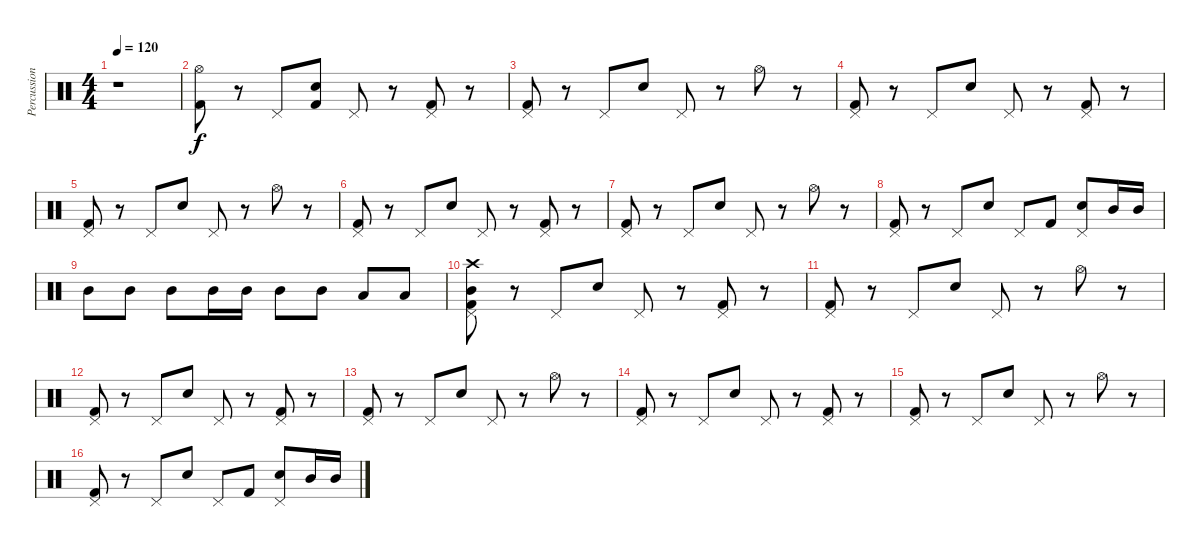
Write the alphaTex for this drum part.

\track ("Percussion" "Percussion") {instrument percussion}
\staff {score}
\articulation defaults
\ts (4 4)
\tempo 120
\clef neutral
\ks c
r.1{dy f} |
("Hi-Hat (open)" "Kick (hit) 2").8 r.8 "Pedal Hi-Hat (hit)".8 ("Electric Snare (hit)" "Kick (hit) 2").8 "Pedal Hi-Hat (hit)".8 r.8 ("Pedal Hi-Hat (hit)" "Kick (hit) 2").8 r.8 |
("Pedal Hi-Hat (hit)" "Kick (hit) 2").8 r.8 "Pedal Hi-Hat (hit)".8 "Electric Snare (hit)".8 "Pedal Hi-Hat (hit)".8 r.8 "Hi-Hat (open)".8 r.8 |
("Pedal Hi-Hat (hit)" "Kick (hit) 2").8 r.8 "Pedal Hi-Hat (hit)".8 "Electric Snare (hit)".8 "Pedal Hi-Hat (hit)".8 r.8 ("Pedal Hi-Hat (hit)" "Kick (hit) 2").8 r.8 |
("Pedal Hi-Hat (hit)" "Kick (hit) 2").8 r.8 "Pedal Hi-Hat (hit)".8 "Electric Snare (hit)".8 "Pedal Hi-Hat (hit)".8 r.8 "Hi-Hat (open)".8 r.8 |
("Pedal Hi-Hat (hit)" "Kick (hit) 2").8 r.8 "Pedal Hi-Hat (hit)".8 "Electric Snare (hit)".8 "Pedal Hi-Hat (hit)".8 r.8 ("Pedal Hi-Hat (hit)" "Kick (hit) 2").8 r.8 |
("Pedal Hi-Hat (hit)" "Kick (hit) 2").8 r.8 "Pedal Hi-Hat (hit)".8 "Electric Snare (hit)".8 "Pedal Hi-Hat (hit)".8 r.8 "Hi-Hat (open)".8 r.8 |
("Pedal Hi-Hat (hit)" "Kick (hit) 2").8 r.8 "Pedal Hi-Hat (hit)".8 "Electric Snare (hit)".8 "Pedal Hi-Hat (hit)".8 "Kick (hit) 2".8 ("Pedal Hi-Hat (hit)" "Electric Snare (hit)").8 "Mid Tom (hit)".16 "Mid Tom (hit)".16 |
"Mid Tom (hit)".8 "Mid Tom (hit)".8 "Mid Tom (hit)".8 "Mid Tom (hit)".16 "Mid Tom (hit)".16 "Mid Tom (hit)".8 "Mid Tom (hit)".8 "Low Tom (hit)".8 "Low Tom (hit)".8 |
("Crash high (hit)" "Pedal Hi-Hat (hit)" "Mid Tom (hit)" "Kick (hit) 2").8 r.8 "Pedal Hi-Hat (hit)".8 "Electric Snare (hit)".8 "Pedal Hi-Hat (hit)".8 r.8 ("Pedal Hi-Hat (hit)" "Kick (hit) 2").8 r.8 |
("Pedal Hi-Hat (hit)" "Kick (hit) 2").8 r.8 "Pedal Hi-Hat (hit)".8 "Electric Snare (hit)".8 "Pedal Hi-Hat (hit)".8 r.8 "Hi-Hat (open)".8 r.8 |
("Pedal Hi-Hat (hit)" "Kick (hit) 2").8 r.8 "Pedal Hi-Hat (hit)".8 "Electric Snare (hit)".8 "Pedal Hi-Hat (hit)".8 r.8 ("Pedal Hi-Hat (hit)" "Kick (hit) 2").8 r.8 |
("Pedal Hi-Hat (hit)" "Kick (hit) 2").8 r.8 "Pedal Hi-Hat (hit)".8 "Electric Snare (hit)".8 "Pedal Hi-Hat (hit)".8 r.8 "Hi-Hat (open)".8 r.8 |
("Pedal Hi-Hat (hit)" "Kick (hit) 2").8 r.8 "Pedal Hi-Hat (hit)".8 "Electric Snare (hit)".8 "Pedal Hi-Hat (hit)".8 r.8 ("Pedal Hi-Hat (hit)" "Kick (hit) 2").8 r.8 |
("Pedal Hi-Hat (hit)" "Kick (hit) 2").8 r.8 "Pedal Hi-Hat (hit)".8 "Electric Snare (hit)".8 "Pedal Hi-Hat (hit)".8 r.8 "Hi-Hat (open)".8 r.8 |
("Pedal Hi-Hat (hit)" "Kick (hit) 2").8 r.8 "Pedal Hi-Hat (hit)".8 "Electric Snare (hit)".8 "Pedal Hi-Hat (hit)".8 "Kick (hit) 2".8 ("Pedal Hi-Hat (hit)" "Electric Snare (hit)").8 "Mid Tom (hit)".16 "Mid Tom (hit)".16
